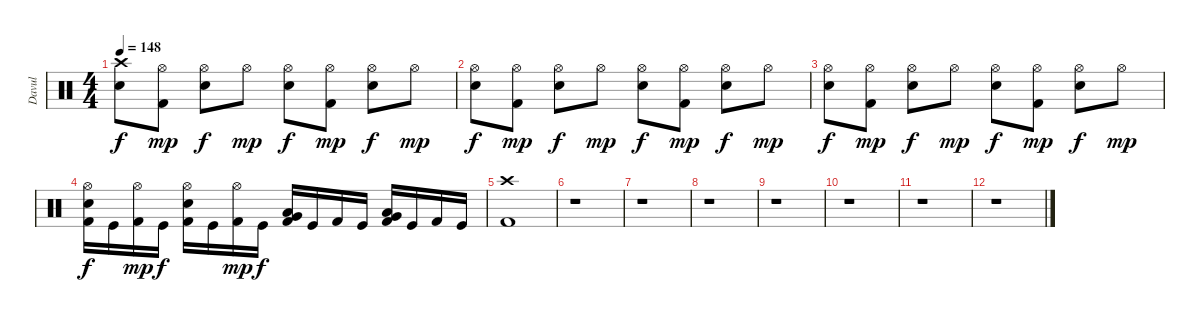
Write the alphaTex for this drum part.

\track ("Davul" "Davul") {instrument percussion}
\staff {score}
\articulation defaults
\ts (4 4)
\tempo 148
\clef neutral
\ks c
("Crash high (hit)" "Electric Snare (hit)").8{dy f} ("Hi-Hat (open)" "Kick (hit) 2").8{dy mp} ("Hi-Hat (open)" "Electric Snare (hit)").8{dy f} "Hi-Hat (open)".8{dy mp} ("Hi-Hat (open)" "Electric Snare (hit)").8{dy f} ("Hi-Hat (open)" "Kick (hit) 2").8{dy mp} ("Hi-Hat (open)" "Electric Snare (hit)").8{dy f} "Hi-Hat (open)".8{dy mp} |
("Hi-Hat (open)" "Electric Snare (hit)").8{dy f} ("Hi-Hat (open)" "Kick (hit) 2").8{dy mp} ("Hi-Hat (open)" "Electric Snare (hit)").8{dy f} "Hi-Hat (open)".8{dy mp} ("Hi-Hat (open)" "Electric Snare (hit)").8{dy f} ("Hi-Hat (open)" "Kick (hit) 2").8{dy mp} ("Hi-Hat (open)" "Electric Snare (hit)").8{dy f} "Hi-Hat (open)".8{dy mp} |
("Hi-Hat (open)" "Electric Snare (hit)").8{dy f} ("Hi-Hat (open)" "Kick (hit) 2").8{dy mp} ("Hi-Hat (open)" "Electric Snare (hit)").8{dy f} "Hi-Hat (open)".8{dy mp} ("Hi-Hat (open)" "Electric Snare (hit)").8{dy f} ("Hi-Hat (open)" "Kick (hit) 2").8{dy mp} ("Hi-Hat (open)" "Electric Snare (hit)").8{dy f} "Hi-Hat (open)".8{dy mp} |
("Hi-Hat (open)" "Electric Snare (hit)" "Kick (hit) 2").16{dy f} "Kick (hit)".16 ("Hi-Hat (open)" "Kick (hit) 2").16{dy mp} "Kick (hit)".16{dy f} ("Hi-Hat (open)" "Electric Snare (hit)" "Kick (hit) 2").16 "Kick (hit)".16 ("Hi-Hat (open)" "Kick (hit) 2").16{dy mp} "Kick (hit)".16{dy f} ("Very Low Tom (hit)" "Low Tom (hit)" "Kick (hit) 2").16 "Kick (hit)".16 "Kick (hit) 2".16 "Kick (hit)".16 ("Low Floor Tom (hit)" "Very Low Tom (hit)" "Kick (hit) 2").16 "Kick (hit)".16 "Kick (hit) 2".16 "Kick (hit)".16 |
("Crash high (hit)" "Kick (hit) 2").1 |
r.1 |
r.1 |
r.1 |
r.1 |
r.1 |
r.1 |
r.1
